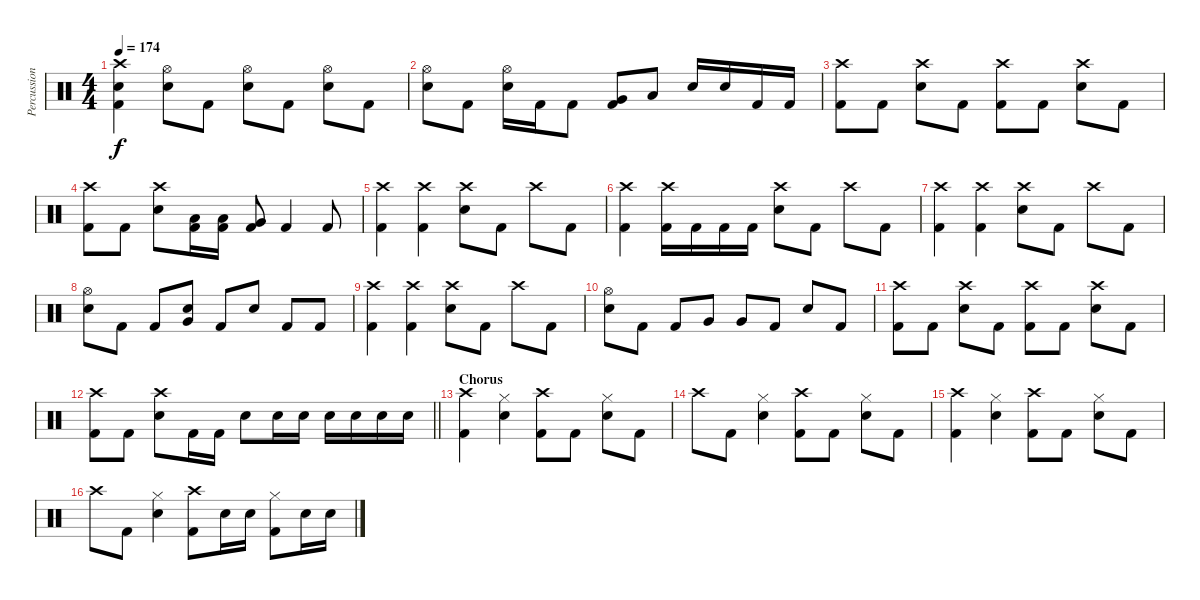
\track ("Percussion" "Percussion") {instrument percussion}
\staff {score}
\articulation defaults
\ts (4 4)
\tempo 174
\clef neutral
\ks c
("Crash high (hit)" "Electric Snare (hit)" "Kick (hit) 2").4{dy f} ("Hi-Hat (open)" "Electric Snare (hit)").8 "Kick (hit) 2".8 ("Hi-Hat (open)" "Electric Snare (hit)").8 "Kick (hit) 2".8 ("Hi-Hat (open)" "Electric Snare (hit)").8 "Kick (hit) 2".8 |
("Hi-Hat (open)" "Electric Snare (hit)").8 "Kick (hit) 2".8 ("Hi-Hat (open)" "Electric Snare (hit)").16 "Kick (hit) 2".16 "Kick (hit) 2".8 ("Very Low Tom (hit)" "Kick (hit) 2").8 "Low Tom (hit)".8 "Electric Snare (hit)".16 "Electric Snare (hit)".16 "Kick (hit) 2".16 "Kick (hit) 2".16 |
("Crash high (hit)" "Kick (hit) 2").8 "Kick (hit) 2".8 ("Crash high (hit)" "Electric Snare (hit)").8 "Kick (hit) 2".8 ("Crash high (hit)" "Kick (hit) 2").8 "Kick (hit) 2".8 ("Crash high (hit)" "Electric Snare (hit)").8 "Kick (hit) 2".8 |
("Crash high (hit)" "Kick (hit) 2").8 "Kick (hit) 2".8 ("Crash high (hit)" "Electric Snare (hit)").8 ("Low Tom (hit)" "Kick (hit) 2").16 ("Low Tom (hit)" "Kick (hit) 2").16 ("Very Low Tom (hit)" "Kick (hit) 2").8 "Kick (hit) 2".4 "Kick (hit) 2".8 |
("Crash high (hit)" "Kick (hit) 2").4 ("Crash high (hit)" "Kick (hit) 2").4 ("Crash high (hit)" "Electric Snare (hit)").8 "Kick (hit) 2".8 "Crash high (hit)".8 "Kick (hit) 2".8 |
("Crash high (hit)" "Kick (hit) 2").4 ("Crash high (hit)" "Kick (hit) 2").16 "Kick (hit) 2".16 "Kick (hit) 2".16 "Kick (hit) 2".16 ("Crash high (hit)" "Electric Snare (hit)").8 "Kick (hit) 2".8 "Crash high (hit)".8 "Kick (hit) 2".8 |
("Crash high (hit)" "Kick (hit) 2").4 ("Crash high (hit)" "Kick (hit) 2").4 ("Crash high (hit)" "Electric Snare (hit)").8 "Kick (hit) 2".8 "Crash high (hit)".8 "Kick (hit) 2".8 |
("Hi-Hat (open)" "Electric Snare (hit)").8 "Kick (hit) 2".8 "Kick (hit) 2".8 ("Very Low Tom (hit)" "Electric Snare (hit)").8 "Kick (hit) 2".8 "Electric Snare (hit)".8 "Kick (hit) 2".8 "Kick (hit) 2".8 |
("Crash high (hit)" "Kick (hit) 2").4 ("Crash high (hit)" "Kick (hit) 2").4 ("Crash high (hit)" "Electric Snare (hit)").8 "Kick (hit) 2".8 "Crash high (hit)".8 "Kick (hit) 2".8 |
("Hi-Hat (open)" "Electric Snare (hit)").8 "Kick (hit) 2".8 "Kick (hit) 2".8 "Very Low Tom (hit)".8 "Very Low Tom (hit)".8 "Kick (hit) 2".8 "Electric Snare (hit)".8 "Kick (hit) 2".8 |
("Crash high (hit)" "Kick (hit) 2").8 "Kick (hit) 2".8 ("Crash high (hit)" "Electric Snare (hit)").8 "Kick (hit) 2".8 ("Crash high (hit)" "Kick (hit) 2").8 "Kick (hit) 2".8 ("Crash high (hit)" "Electric Snare (hit)").8 "Kick (hit) 2".8 |
\barLineRight lightlight
("Crash high (hit)" "Kick (hit) 2").8 "Kick (hit) 2".8 ("Crash high (hit)" "Electric Snare (hit)").8 "Kick (hit) 2".16 "Kick (hit) 2".16 "Electric Snare (hit)".8 "Electric Snare (hit)".16 "Electric Snare (hit)".16 "Electric Snare (hit)".16 "Electric Snare (hit)".16 "Electric Snare (hit)".16 "Electric Snare (hit)".16 |
\section ("" "Chorus")
("Crash high (hit)" "Kick (hit) 2").4 ("Hi-Hat (closed)" "Electric Snare (hit)").4 ("Crash high (hit)" "Kick (hit) 2").8 "Kick (hit) 2".8 ("Hi-Hat (closed)" "Electric Snare (hit)").8 "Kick (hit) 2".8 |
"Crash high (hit)".8 "Kick (hit) 2".8 ("Hi-Hat (closed)" "Electric Snare (hit)").4 ("Crash high (hit)" "Kick (hit) 2").8 "Kick (hit) 2".8 ("Hi-Hat (closed)" "Electric Snare (hit)").8 "Kick (hit) 2".8 |
("Crash high (hit)" "Kick (hit) 2").4 ("Hi-Hat (closed)" "Electric Snare (hit)").4 ("Crash high (hit)" "Kick (hit) 2").8 "Kick (hit) 2".8 ("Hi-Hat (closed)" "Electric Snare (hit)").8 "Kick (hit) 2".8 |
"Crash high (hit)".8 "Kick (hit) 2".8 ("Hi-Hat (closed)" "Electric Snare (hit)").4 ("Crash high (hit)" "Kick (hit) 2").8 "Electric Snare (hit)".16 "Electric Snare (hit)".16 ("Hi-Hat (closed)" "Kick (hit) 2").8 "Electric Snare (hit)".16 "Electric Snare (hit)".16
